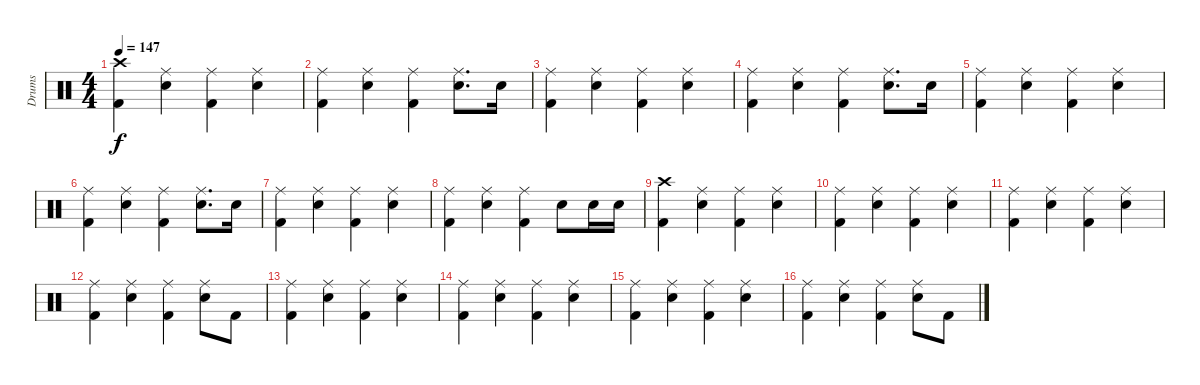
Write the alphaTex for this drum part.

\track ("Drums" "Drums") {instrument percussion}
\staff {score}
\articulation defaults
\ts (4 4)
\tempo 147
\clef neutral
\ks c
("Crash high (hit)" "Kick (hit) 2").4{dy f} ("Ride (middle)" "Snare (hit) 2").4 ("Ride (middle)" "Kick (hit) 2").4 ("Ride (middle)" "Snare (hit) 2").4 |
("Ride (middle)" "Kick (hit) 2").4 ("Ride (middle)" "Snare (hit) 2").4 ("Ride (middle)" "Kick (hit) 2").4 ("Ride (middle)" "Snare (hit) 2").8{d} "Snare (hit) 2".16 |
("Ride (middle)" "Kick (hit) 2").4 ("Ride (middle)" "Snare (hit) 2").4 ("Ride (middle)" "Kick (hit) 2").4 ("Ride (middle)" "Snare (hit) 2").4 |
("Ride (middle)" "Kick (hit) 2").4 ("Ride (middle)" "Snare (hit) 2").4 ("Ride (middle)" "Kick (hit) 2").4 ("Ride (middle)" "Snare (hit) 2").8{d} "Snare (hit) 2".16 |
("Ride (middle)" "Kick (hit) 2").4 ("Ride (middle)" "Snare (hit) 2").4 ("Ride (middle)" "Kick (hit) 2").4 ("Ride (middle)" "Snare (hit) 2").4 |
("Ride (middle)" "Kick (hit) 2").4 ("Ride (middle)" "Snare (hit) 2").4 ("Ride (middle)" "Kick (hit) 2").4 ("Ride (middle)" "Snare (hit) 2").8{d} "Snare (hit) 2".16 |
("Ride (middle)" "Kick (hit) 2").4 ("Ride (middle)" "Snare (hit) 2").4 ("Ride (middle)" "Kick (hit) 2").4 ("Ride (middle)" "Snare (hit) 2").4 |
("Ride (middle)" "Kick (hit) 2").4 ("Ride (middle)" "Snare (hit) 2").4 ("Ride (middle)" "Kick (hit) 2").4 "Snare (hit) 2".8 "Snare (hit) 2".16 "Snare (hit) 2".16 |
("Crash high (hit)" "Kick (hit) 2").4 ("Ride (middle)" "Snare (hit) 2").4 ("Ride (middle)" "Kick (hit) 2").4 ("Ride (middle)" "Snare (hit) 2").4 |
("Ride (middle)" "Kick (hit) 2").4 ("Ride (middle)" "Snare (hit) 2").4 ("Ride (middle)" "Kick (hit) 2").4 ("Ride (middle)" "Snare (hit) 2").4 |
("Ride (middle)" "Kick (hit) 2").4 ("Ride (middle)" "Snare (hit) 2").4 ("Ride (middle)" "Kick (hit) 2").4 ("Ride (middle)" "Snare (hit) 2").4 |
("Ride (middle)" "Kick (hit) 2").4 ("Ride (middle)" "Snare (hit) 2").4 ("Ride (middle)" "Kick (hit) 2").4 ("Ride (middle)" "Snare (hit) 2").8 "Kick (hit) 2".8 |
("Ride (middle)" "Kick (hit) 2").4 ("Ride (middle)" "Snare (hit) 2").4 ("Ride (middle)" "Kick (hit) 2").4 ("Ride (middle)" "Snare (hit) 2").4 |
("Ride (middle)" "Kick (hit) 2").4 ("Ride (middle)" "Snare (hit) 2").4 ("Ride (middle)" "Kick (hit) 2").4 ("Ride (middle)" "Snare (hit) 2").4 |
("Ride (middle)" "Kick (hit) 2").4 ("Ride (middle)" "Snare (hit) 2").4 ("Ride (middle)" "Kick (hit) 2").4 ("Ride (middle)" "Snare (hit) 2").4 |
("Ride (middle)" "Kick (hit) 2").4 ("Ride (middle)" "Snare (hit) 2").4 ("Ride (middle)" "Kick (hit) 2").4 ("Ride (middle)" "Snare (hit) 2").8 "Kick (hit) 2".8
